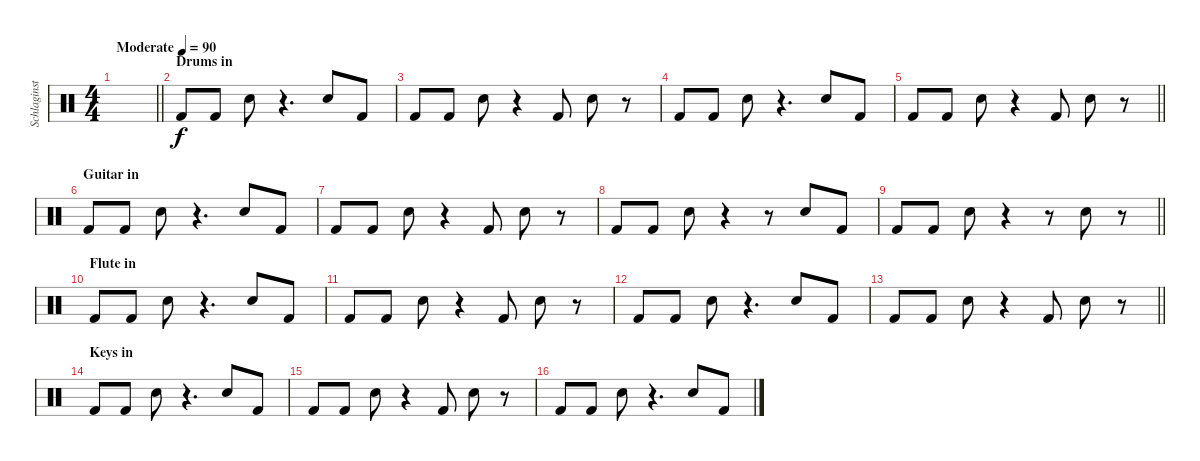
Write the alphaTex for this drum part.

\track ("Schlaginstrumente - Auswahl" "Schlaginst") {instrument percussion}
\staff {score}
\articulation defaults
\ts (4 4)
\tempo (90 "Moderate")
\clef neutral
\barLineRight lightlight
\ks c
|
\section ("" "Drums in")
"Kick (hit) 2".8 "Kick (hit) 2".8 "Snare (hit) 2".8 r.4{d} "Snare (hit) 2".8 "Kick (hit) 2".8 |
"Kick (hit) 2".8 "Kick (hit) 2".8 "Snare (hit) 2".8 r.4 "Kick (hit) 2".8 "Snare (hit) 2".8 r.8 |
"Kick (hit) 2".8 "Kick (hit) 2".8 "Snare (hit) 2".8 r.4{d} "Snare (hit) 2".8 "Kick (hit) 2".8 |
\barLineRight lightlight "Kick (hit) 2".8 "Kick (hit) 2".8 "Snare (hit) 2".8
r.4 "Kick (hit) 2".8 "Snare (hit) 2".8 r.8 |
\section ("" "Guitar in")
"Kick (hit) 2".8 "Kick (hit) 2".8 "Snare (hit) 2".8 r.4{d} "Snare (hit) 2".8 "Kick (hit) 2".8 |
"Kick (hit) 2".8 "Kick (hit) 2".8 "Snare (hit) 2".8 r.4 "Kick (hit) 2".8 "Snare (hit) 2".8 r.8 |
"Kick (hit) 2".8 "Kick (hit) 2".8 "Snare (hit) 2".8 r.4 r.8 "Snare (hit) 2".8 "Kick (hit) 2".8 |
\barLineRight lightlight "Kick (hit) 2".8 "Kick (hit) 2".8 "Snare (hit) 2".8
r.4 r.8 "Snare (hit) 2".8 r.8 |
\section ("" "Flute in")
"Kick (hit) 2".8 "Kick (hit) 2".8 "Snare (hit) 2".8 r.4{d} "Snare (hit) 2".8 "Kick (hit) 2".8 |
"Kick (hit) 2".8 "Kick (hit) 2".8 "Snare (hit) 2".8 r.4 "Kick (hit) 2".8 "Snare (hit) 2".8 r.8 |
"Kick (hit) 2".8 "Kick (hit) 2".8 "Snare (hit) 2".8 r.4{d} "Snare (hit) 2".8 "Kick (hit) 2".8 |
\barLineRight lightlight "Kick (hit) 2".8 "Kick (hit) 2".8 "Snare (hit) 2".8
r.4 "Kick (hit) 2".8 "Snare (hit) 2".8 r.8 |
\section ("" "Keys in")
"Kick (hit) 2".8 "Kick (hit) 2".8 "Snare (hit) 2".8 r.4{d} "Snare (hit) 2".8 "Kick (hit) 2".8 |
"Kick (hit) 2".8 "Kick (hit) 2".8 "Snare (hit) 2".8 r.4 "Kick (hit) 2".8 "Snare (hit) 2".8 r.8 |
"Kick (hit) 2".8 "Kick (hit) 2".8 "Snare (hit) 2".8 r.4{d} "Snare (hit) 2".8 "Kick (hit) 2".8
